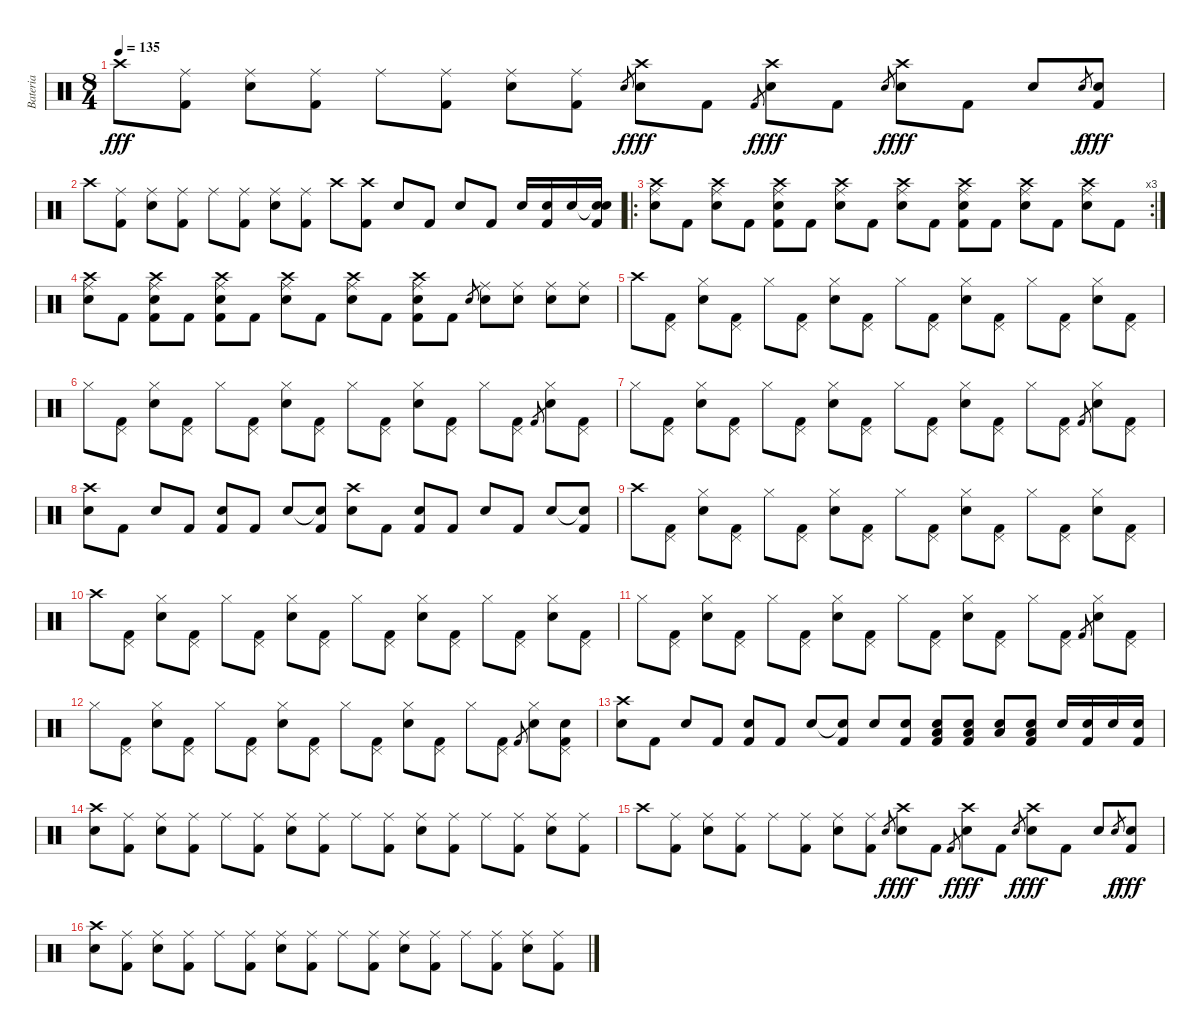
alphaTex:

\track ("Bateria" "Bateria") {instrument percussion}
\staff {score}
\articulation defaults
\ts (8 4)
\tempo 135
\clef neutral
\ks c "Crash high (hit)".8{dy fff}
("Ride (middle)" "Kick (hit) 2").8 ("Ride (middle)" "Electric Snare (hit)").8 ("Ride (middle)" "Kick (hit) 2").8 "Ride (middle)".8 ("Ride (middle)" "Kick (hit) 2").8 ("Ride (middle)" "Electric Snare (hit)").8 ("Ride (middle)" "Kick (hit) 2").8 "Electric Snare (hit)".8{gr dy f} ("Crash high (hit)" "Electric Snare (hit)").8{dy fff} "Kick (hit) 2".8 "Kick (hit) 2".8{gr dy f} ("Crash high (hit)" "Electric Snare (hit)").8{dy fff} "Kick (hit) 2".8 "Electric Snare (hit)".8{gr dy f} ("Crash high (hit)" "Electric Snare (hit)").8{dy fff} "Kick (hit) 2".8 "Electric Snare (hit)".8 "Electric Snare (hit)".8{gr dy f} ("Electric Snare (hit)" "Kick (hit) 2").8{dy fff} |
"Crash high (hit)".8 ("Ride (middle)" "Kick (hit) 2").8 ("Ride (middle)" "Electric Snare (hit)").8 ("Ride (middle)" "Kick (hit) 2").8 "Ride (middle)".8 ("Ride (middle)" "Kick (hit) 2").8 ("Ride (middle)" "Electric Snare (hit)").8 ("Ride (middle)" "Kick (hit) 2").8 "Crash high (hit)".8 ("Crash high (hit)" "Kick (hit) 2").8 "Electric Snare (hit)".8 "Kick (hit) 2".8 "Electric Snare (hit)".8 "Kick (hit) 2".8 "Electric Snare (hit)".16 ("Electric Snare (hit)" "Kick (hit) 2").16 "Electric Snare (hit)".16 ("Snare (hit)"{t} "Electric Snare (hit)" "Kick (hit) 2").16 |
\ro
\rc 3
("Ride (middle)" "Crash high (hit)" "Electric Snare (hit)").8 "Kick (hit) 2".8 ("Ride (middle)" "Crash high (hit)" "Electric Snare (hit)").8 "Kick (hit) 2".8 ("Ride (middle)" "Crash high (hit)" "Electric Snare (hit)" "Kick (hit) 2").8 "Kick (hit) 2".8 ("Ride (middle)" "Crash high (hit)" "Electric Snare (hit)").8 "Kick (hit) 2".8 ("Ride (middle)" "Crash high (hit)" "Electric Snare (hit)").8 "Kick (hit) 2".8 ("Ride (middle)" "Crash high (hit)" "Electric Snare (hit)" "Kick (hit) 2").8 "Kick (hit) 2".8 ("Ride (middle)" "Crash high (hit)" "Electric Snare (hit)").8 "Kick (hit) 2".8 ("Ride (middle)" "Crash high (hit)" "Electric Snare (hit)").8 "Kick (hit) 2".8 |
("Ride (middle)" "Crash high (hit)" "Electric Snare (hit)").8 "Kick (hit) 2".8 ("Ride (middle)" "Crash high (hit)" "Electric Snare (hit)" "Kick (hit) 2").8 "Kick (hit) 2".8 ("Ride (middle)" "Crash high (hit)" "Electric Snare (hit)" "Kick (hit) 2").8 "Kick (hit) 2".8 ("Ride (middle)" "Crash high (hit)" "Electric Snare (hit)").8 "Kick (hit) 2".8 ("Ride (middle)" "Crash high (hit)" "Electric Snare (hit)").8 "Kick (hit) 2".8 ("Ride (middle)" "Crash high (hit)" "Electric Snare (hit)" "Kick (hit) 2").8 "Kick (hit) 2".8 "Electric Snare (hit)".8{gr} ("Ride (middle)" "Electric Snare (hit)").8 ("Ride (middle)" "Electric Snare (hit)").8 ("Ride (middle)" "Electric Snare (hit)").8 ("Ride (middle)" "Electric Snare (hit)").8 |
"Crash high (hit)".8 ("Pedal Hi-Hat (hit)" "Kick (hit) 2").8 ("Hi-Hat (closed)" "Electric Snare (hit)").8 ("Pedal Hi-Hat (hit)" "Kick (hit) 2").8 "Hi-Hat (closed)".8 ("Pedal Hi-Hat (hit)" "Kick (hit) 2").8 ("Hi-Hat (closed)" "Electric Snare (hit)").8 ("Pedal Hi-Hat (hit)" "Kick (hit) 2").8 "Hi-Hat (closed)".8 ("Pedal Hi-Hat (hit)" "Kick (hit) 2").8 ("Hi-Hat (closed)" "Electric Snare (hit)").8 ("Pedal Hi-Hat (hit)" "Kick (hit) 2").8 "Hi-Hat (closed)".8 ("Pedal Hi-Hat (hit)" "Kick (hit) 2").8 ("Hi-Hat (closed)" "Electric Snare (hit)").8 ("Pedal Hi-Hat (hit)" "Kick (hit) 2").8 |
"Hi-Hat (closed)".8 ("Pedal Hi-Hat (hit)" "Kick (hit) 2").8 ("Hi-Hat (closed)" "Electric Snare (hit)").8 ("Pedal Hi-Hat (hit)" "Kick (hit) 2").8 "Hi-Hat (closed)".8 ("Pedal Hi-Hat (hit)" "Kick (hit) 2").8 ("Hi-Hat (closed)" "Electric Snare (hit)").8 ("Pedal Hi-Hat (hit)" "Kick (hit) 2").8 "Hi-Hat (closed)".8 ("Pedal Hi-Hat (hit)" "Kick (hit) 2").8 ("Hi-Hat (closed)" "Electric Snare (hit)").8 ("Pedal Hi-Hat (hit)" "Kick (hit) 2").8 "Hi-Hat (closed)".8 ("Pedal Hi-Hat (hit)" "Kick (hit) 2").8 "Kick (hit) 2".8{gr} ("Hi-Hat (closed)" "Electric Snare (hit)").8 ("Pedal Hi-Hat (hit)" "Kick (hit) 2").8 |
"Hi-Hat (closed)".8 ("Pedal Hi-Hat (hit)" "Kick (hit) 2").8 ("Hi-Hat (closed)" "Electric Snare (hit)").8 ("Pedal Hi-Hat (hit)" "Kick (hit) 2").8 "Hi-Hat (closed)".8 ("Pedal Hi-Hat (hit)" "Kick (hit) 2").8 ("Hi-Hat (closed)" "Electric Snare (hit)").8 ("Pedal Hi-Hat (hit)" "Kick (hit) 2").8 "Hi-Hat (closed)".8 ("Pedal Hi-Hat (hit)" "Kick (hit) 2").8 ("Hi-Hat (closed)" "Electric Snare (hit)").8 ("Pedal Hi-Hat (hit)" "Kick (hit) 2").8 "Hi-Hat (closed)".8 ("Pedal Hi-Hat (hit)" "Kick (hit) 2").8 "Kick (hit) 2".8{gr} ("Hi-Hat (closed)" "Electric Snare (hit)").8 ("Pedal Hi-Hat (hit)" "Kick (hit) 2").8 |
("Crash high (hit)" "Electric Snare (hit)").8 "Kick (hit) 2".8 "Electric Snare (hit)".8 "Kick (hit) 2".8 ("Electric Snare (hit)" "Kick (hit) 2").8 "Kick (hit) 2".8 "Electric Snare (hit)".8 ("Snare (hit)"{t} "Kick (hit) 2").8 ("Crash high (hit)" "Electric Snare (hit)").8 "Kick (hit) 2".8 ("Electric Snare (hit)" "Kick (hit) 2").8 "Kick (hit) 2".8 "Electric Snare (hit)".8 "Kick (hit) 2".8 "Electric Snare (hit)".8 ("Snare (hit)"{t} "Kick (hit) 2").8 |
"Crash high (hit)".8 ("Pedal Hi-Hat (hit)" "Kick (hit) 2").8 ("Hi-Hat (closed)" "Electric Snare (hit)").8 ("Pedal Hi-Hat (hit)" "Kick (hit) 2").8 "Hi-Hat (closed)".8 ("Pedal Hi-Hat (hit)" "Kick (hit) 2").8 ("Hi-Hat (closed)" "Electric Snare (hit)").8 ("Pedal Hi-Hat (hit)" "Kick (hit) 2").8 "Hi-Hat (closed)".8 ("Pedal Hi-Hat (hit)" "Kick (hit) 2").8 ("Hi-Hat (closed)" "Electric Snare (hit)").8 ("Pedal Hi-Hat (hit)" "Kick (hit) 2").8 "Hi-Hat (closed)".8 ("Pedal Hi-Hat (hit)" "Kick (hit) 2").8 ("Hi-Hat (closed)" "Electric Snare (hit)").8 ("Pedal Hi-Hat (hit)" "Kick (hit) 2").8 |
"Crash high (hit)".8 ("Pedal Hi-Hat (hit)" "Kick (hit) 2").8 ("Hi-Hat (closed)" "Electric Snare (hit)").8 ("Pedal Hi-Hat (hit)" "Kick (hit) 2").8 "Hi-Hat (closed)".8 ("Pedal Hi-Hat (hit)" "Kick (hit) 2").8 ("Hi-Hat (closed)" "Electric Snare (hit)").8 ("Pedal Hi-Hat (hit)" "Kick (hit) 2").8 "Hi-Hat (closed)".8 ("Pedal Hi-Hat (hit)" "Kick (hit) 2").8 ("Hi-Hat (closed)" "Electric Snare (hit)").8 ("Pedal Hi-Hat (hit)" "Kick (hit) 2").8 "Hi-Hat (closed)".8 ("Pedal Hi-Hat (hit)" "Kick (hit) 2").8 ("Hi-Hat (closed)" "Electric Snare (hit)").8 ("Pedal Hi-Hat (hit)" "Kick (hit) 2").8 |
"Hi-Hat (closed)".8 ("Pedal Hi-Hat (hit)" "Kick (hit) 2").8 ("Hi-Hat (closed)" "Electric Snare (hit)").8 ("Pedal Hi-Hat (hit)" "Kick (hit) 2").8 "Hi-Hat (closed)".8 ("Pedal Hi-Hat (hit)" "Kick (hit) 2").8 ("Hi-Hat (closed)" "Electric Snare (hit)").8 ("Pedal Hi-Hat (hit)" "Kick (hit) 2").8 "Hi-Hat (closed)".8 ("Pedal Hi-Hat (hit)" "Kick (hit) 2").8 ("Hi-Hat (closed)" "Electric Snare (hit)").8 ("Pedal Hi-Hat (hit)" "Kick (hit) 2").8 "Hi-Hat (closed)".8 ("Pedal Hi-Hat (hit)" "Kick (hit) 2").8 "Kick (hit) 2".8{gr} ("Hi-Hat (closed)" "Electric Snare (hit)").8 ("Pedal Hi-Hat (hit)" "Kick (hit) 2").8 |
"Hi-Hat (closed)".8 ("Pedal Hi-Hat (hit)" "Kick (hit) 2").8 ("Hi-Hat (closed)" "Electric Snare (hit)").8 ("Pedal Hi-Hat (hit)" "Kick (hit) 2").8 "Hi-Hat (closed)".8 ("Pedal Hi-Hat (hit)" "Kick (hit) 2").8 ("Hi-Hat (closed)" "Electric Snare (hit)").8 ("Pedal Hi-Hat (hit)" "Kick (hit) 2").8 "Hi-Hat (closed)".8 ("Pedal Hi-Hat (hit)" "Kick (hit) 2").8 ("Hi-Hat (closed)" "Electric Snare (hit)").8 ("Pedal Hi-Hat (hit)" "Kick (hit) 2").8 "Hi-Hat (closed)".8 ("Pedal Hi-Hat (hit)" "Kick (hit) 2").8 "Kick (hit) 2".8{gr} ("Hi-Hat (closed)" "Electric Snare (hit)").8 ("Pedal Hi-Hat (hit)" "Electric Snare (hit)" "Kick (hit) 2").8 |
("Crash high (hit)" "Electric Snare (hit)").8 "Kick (hit) 2".8 "Electric Snare (hit)".8 "Kick (hit) 2".8 ("Electric Snare (hit)" "Kick (hit) 2").8 "Kick (hit) 2".8 "Electric Snare (hit)".8 ("Snare (hit)"{t} "Kick (hit) 2").8 "Electric Snare (hit)".8 ("Electric Snare (hit)" "Kick (hit) 2").8 ("Low Tom (hit)" "Electric Snare (hit)" "Kick (hit) 2").8 ("Low Tom (hit)" "Electric Snare (hit)" "Kick (hit) 2").8 ("Low Tom (hit)" "Electric Snare (hit)").8 ("Low Tom (hit)" "Electric Snare (hit)" "Kick (hit) 2").8 "Electric Snare (hit)".16 ("Electric Snare (hit)" "Kick (hit) 2").16 "Electric Snare (hit)".16 ("Electric Snare (hit)" "Kick (hit) 2").16 |
("Crash high (hit)" "Electric Snare (hit)").8 ("Ride (middle)" "Kick (hit) 2").8 ("Ride (middle)" "Electric Snare (hit)").8 ("Ride (middle)" "Kick (hit) 2").8 "Ride (middle)".8 ("Ride (middle)" "Kick (hit) 2").8 ("Ride (middle)" "Electric Snare (hit)").8 ("Ride (middle)" "Kick (hit) 2").8 "Ride (middle)".8 ("Ride (middle)" "Kick (hit) 2").8 ("Ride (middle)" "Electric Snare (hit)").8 ("Ride (middle)" "Kick (hit) 2").8 "Ride (middle)".8 ("Ride (middle)" "Kick (hit) 2").8 ("Ride (middle)" "Electric Snare (hit)").8 ("Ride (middle)" "Kick (hit) 2").8 |
"Crash high (hit)".8 ("Ride (middle)" "Kick (hit) 2").8 ("Ride (middle)" "Electric Snare (hit)").8 ("Ride (middle)" "Kick (hit) 2").8 "Ride (middle)".8 ("Ride (middle)" "Kick (hit) 2").8 ("Ride (middle)" "Electric Snare (hit)").8 ("Ride (middle)" "Kick (hit) 2").8 "Electric Snare (hit)".8{gr dy f} ("Crash high (hit)" "Electric Snare (hit)").8{dy fff} "Kick (hit) 2".8 "Kick (hit) 2".8{gr dy f} ("Crash high (hit)" "Electric Snare (hit)").8{dy fff} "Kick (hit) 2".8 "Electric Snare (hit)".8{gr dy f} ("Crash high (hit)" "Electric Snare (hit)").8{dy fff} "Kick (hit) 2".8 "Electric Snare (hit)".8 "Electric Snare (hit)".8{gr dy f} ("Electric Snare (hit)" "Kick (hit) 2").8{dy fff} |
("Crash high (hit)" "Electric Snare (hit)").8 ("Ride (middle)" "Kick (hit) 2").8 ("Ride (middle)" "Electric Snare (hit)").8 ("Ride (middle)" "Kick (hit) 2").8 "Ride (middle)".8 ("Ride (middle)" "Kick (hit) 2").8 ("Ride (middle)" "Electric Snare (hit)").8 ("Ride (middle)" "Kick (hit) 2").8 "Ride (middle)".8 ("Ride (middle)" "Kick (hit) 2").8 ("Ride (middle)" "Electric Snare (hit)").8 ("Ride (middle)" "Kick (hit) 2").8 "Ride (middle)".8 ("Ride (middle)" "Kick (hit) 2").8 ("Ride (middle)" "Electric Snare (hit)").8 ("Ride (middle)" "Kick (hit) 2").8
